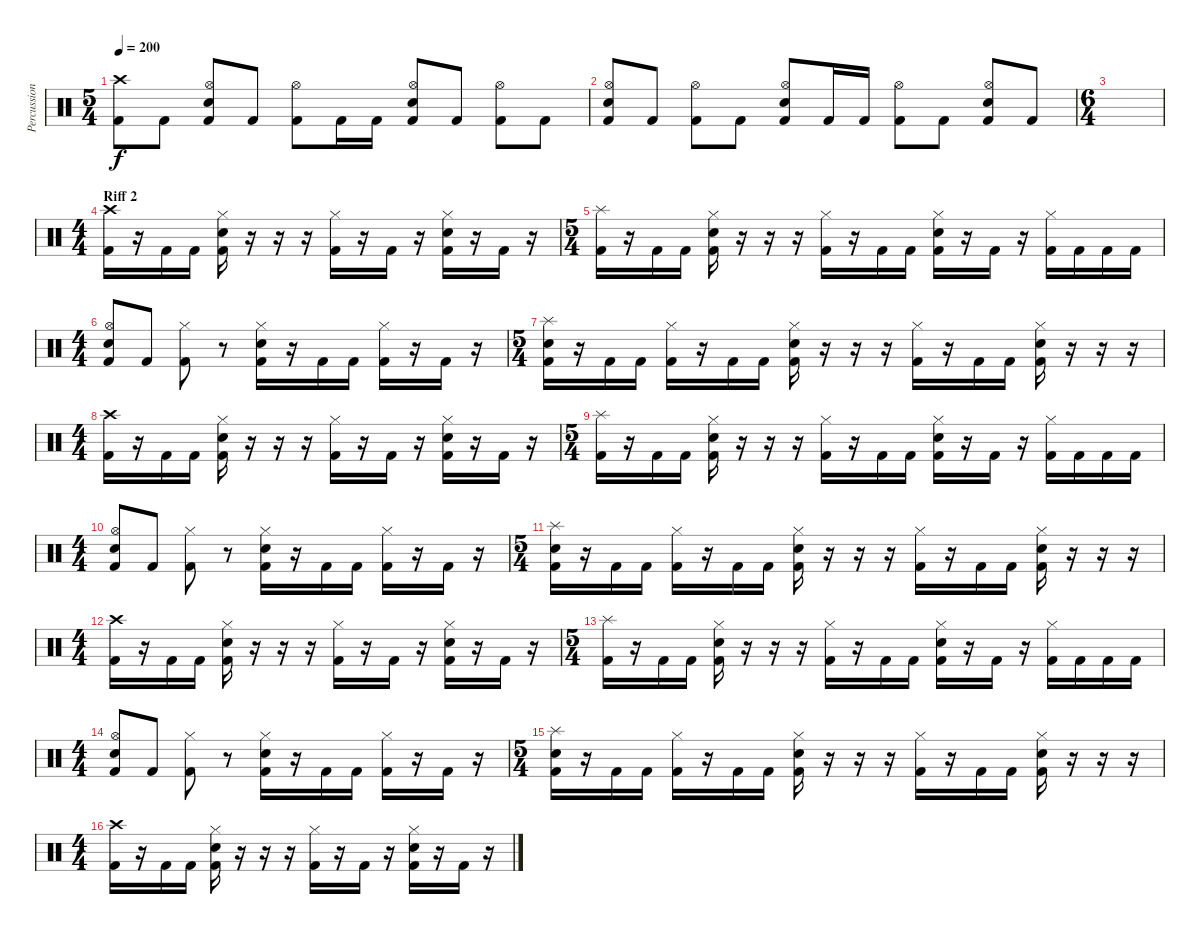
\track ("Percussion" "Percussion") {instrument percussion}
\staff {score}
\articulation defaults
\ts (5 4)
\tempo 200
\clef neutral
\ks c
("Crash high (hit)" "Kick (hit) 2").8{dy f} "Kick (hit) 2".8 ("Hi-Hat (open)" "Electric Snare (hit)" "Kick (hit) 2").8 "Kick (hit) 2".8 ("Hi-Hat (open)" "Kick (hit) 2").8 "Kick (hit) 2".16 "Kick (hit) 2".16 ("Hi-Hat (open)" "Electric Snare (hit)" "Kick (hit) 2").8 "Kick (hit) 2".8 ("Hi-Hat (open)" "Kick (hit) 2").8 "Kick (hit) 2".8 |
("Hi-Hat (open)" "Electric Snare (hit)" "Kick (hit) 2").8 "Kick (hit) 2".8 ("Hi-Hat (open)" "Kick (hit) 2").8 "Kick (hit) 2".8 ("Hi-Hat (open)" "Electric Snare (hit)" "Kick (hit) 2").8 "Kick (hit) 2".16 "Kick (hit) 2".16 ("Hi-Hat (open)" "Kick (hit) 2").8 "Kick (hit) 2".8 ("Hi-Hat (open)" "Electric Snare (hit)" "Kick (hit) 2").8 "Kick (hit) 2".8 |
\ts (6 4)
|
\ts (4 4)
\section ("" "Riff 2")
("Crash high (hit)" "Kick (hit) 2").16 r.16 "Kick (hit) 2".16 "Kick (hit) 2".16 ("Hi-Hat (closed)" "Electric Snare (hit)" "Kick (hit) 2").16 r.16 r.16 r.16 ("Hi-Hat (closed)" "Kick (hit) 2").16 r.16 "Kick (hit) 2".16 r.16 ("Hi-Hat (closed)" "Electric Snare (hit)" "Kick (hit) 2").16 r.16 "Kick (hit) 2".16 r.16 |
\ts (5 4)
("Splash (hit)" "Kick (hit) 2").16 r.16 "Kick (hit) 2".16 "Kick (hit) 2".16 ("Hi-Hat (closed)" "Electric Snare (hit)" "Kick (hit) 2").16 r.16 r.16 r.16 ("Hi-Hat (closed)" "Kick (hit) 2").16 r.16 "Kick (hit) 2".16 "Kick (hit) 2".16 ("Hi-Hat (closed)" "Electric Snare (hit)" "Kick (hit) 2").16 r.16 "Kick (hit) 2".16 r.16 ("Hi-Hat (closed)" "Kick (hit) 2").16 "Kick (hit) 2".16 "Kick (hit) 2".16 "Kick (hit) 2".16 |
\ts (4 4)
("Hi-Hat (open)" "Electric Snare (hit)" "Kick (hit) 2").8 "Kick (hit) 2".8 ("Hi-Hat (closed)" "Kick (hit) 2").8 r.8 ("Hi-Hat (closed)" "Electric Snare (hit)" "Kick (hit) 2").16 r.16 "Kick (hit) 2".16 "Kick (hit) 2".16 ("Hi-Hat (closed)" "Kick (hit) 2").16 r.16 "Kick (hit) 2".16 r.16 |
\ts (5 4)
("Splash (hit)" "Electric Snare (hit)" "Kick (hit) 2").16 r.16 "Kick (hit) 2".16 "Kick (hit) 2".16 ("Hi-Hat (closed)" "Kick (hit) 2").16 r.16 "Kick (hit) 2".16 "Kick (hit) 2".16 ("Hi-Hat (closed)" "Electric Snare (hit)" "Kick (hit) 2").16 r.16 r.16 r.16 ("Hi-Hat (closed)" "Kick (hit) 2").16 r.16 "Kick (hit) 2".16 "Kick (hit) 2".16 ("Hi-Hat (closed)" "Electric Snare (hit)" "Kick (hit) 2").16 r.16 r.16 r.16 |
\ts (4 4)
("Crash high (hit)" "Kick (hit) 2").16 r.16 "Kick (hit) 2".16 "Kick (hit) 2".16 ("Hi-Hat (closed)" "Electric Snare (hit)" "Kick (hit) 2").16 r.16 r.16 r.16 ("Hi-Hat (closed)" "Kick (hit) 2").16 r.16 "Kick (hit) 2".16 r.16 ("Hi-Hat (closed)" "Electric Snare (hit)" "Kick (hit) 2").16 r.16 "Kick (hit) 2".16 r.16 |
\ts (5 4)
("Splash (hit)" "Kick (hit) 2").16 r.16 "Kick (hit) 2".16 "Kick (hit) 2".16 ("Hi-Hat (closed)" "Electric Snare (hit)" "Kick (hit) 2").16 r.16 r.16 r.16 ("Hi-Hat (closed)" "Kick (hit) 2").16 r.16 "Kick (hit) 2".16 "Kick (hit) 2".16 ("Hi-Hat (closed)" "Electric Snare (hit)" "Kick (hit) 2").16 r.16 "Kick (hit) 2".16 r.16 ("Hi-Hat (closed)" "Kick (hit) 2").16 "Kick (hit) 2".16 "Kick (hit) 2".16 "Kick (hit) 2".16 |
\ts (4 4)
("Hi-Hat (open)" "Electric Snare (hit)" "Kick (hit) 2").8 "Kick (hit) 2".8 ("Hi-Hat (closed)" "Kick (hit) 2").8 r.8 ("Hi-Hat (closed)" "Electric Snare (hit)" "Kick (hit) 2").16 r.16 "Kick (hit) 2".16 "Kick (hit) 2".16 ("Hi-Hat (closed)" "Kick (hit) 2").16 r.16 "Kick (hit) 2".16 r.16 |
\ts (5 4)
("Splash (hit)" "Electric Snare (hit)" "Kick (hit) 2").16 r.16 "Kick (hit) 2".16 "Kick (hit) 2".16 ("Hi-Hat (closed)" "Kick (hit) 2").16 r.16 "Kick (hit) 2".16 "Kick (hit) 2".16 ("Hi-Hat (closed)" "Electric Snare (hit)" "Kick (hit) 2").16 r.16 r.16 r.16 ("Hi-Hat (closed)" "Kick (hit) 2").16 r.16 "Kick (hit) 2".16 "Kick (hit) 2".16 ("Hi-Hat (closed)" "Electric Snare (hit)" "Kick (hit) 2").16 r.16 r.16 r.16 |
\ts (4 4)
("Crash high (hit)" "Kick (hit) 2").16 r.16 "Kick (hit) 2".16 "Kick (hit) 2".16 ("Hi-Hat (closed)" "Electric Snare (hit)" "Kick (hit) 2").16 r.16 r.16 r.16 ("Hi-Hat (closed)" "Kick (hit) 2").16 r.16 "Kick (hit) 2".16 r.16 ("Hi-Hat (closed)" "Electric Snare (hit)" "Kick (hit) 2").16 r.16 "Kick (hit) 2".16 r.16 |
\ts (5 4)
("Splash (hit)" "Kick (hit) 2").16 r.16 "Kick (hit) 2".16 "Kick (hit) 2".16 ("Hi-Hat (closed)" "Electric Snare (hit)" "Kick (hit) 2").16 r.16 r.16 r.16 ("Hi-Hat (closed)" "Kick (hit) 2").16 r.16 "Kick (hit) 2".16 "Kick (hit) 2".16 ("Hi-Hat (closed)" "Electric Snare (hit)" "Kick (hit) 2").16 r.16 "Kick (hit) 2".16 r.16 ("Hi-Hat (closed)" "Kick (hit) 2").16 "Kick (hit) 2".16 "Kick (hit) 2".16 "Kick (hit) 2".16 |
\ts (4 4)
("Hi-Hat (open)" "Electric Snare (hit)" "Kick (hit) 2").8 "Kick (hit) 2".8 ("Hi-Hat (closed)" "Kick (hit) 2").8 r.8 ("Hi-Hat (closed)" "Electric Snare (hit)" "Kick (hit) 2").16 r.16 "Kick (hit) 2".16 "Kick (hit) 2".16 ("Hi-Hat (closed)" "Kick (hit) 2").16 r.16 "Kick (hit) 2".16 r.16 |
\ts (5 4)
("Splash (hit)" "Electric Snare (hit)" "Kick (hit) 2").16 r.16 "Kick (hit) 2".16 "Kick (hit) 2".16 ("Hi-Hat (closed)" "Kick (hit) 2").16 r.16 "Kick (hit) 2".16 "Kick (hit) 2".16 ("Hi-Hat (closed)" "Electric Snare (hit)" "Kick (hit) 2").16 r.16 r.16 r.16 ("Hi-Hat (closed)" "Kick (hit) 2").16 r.16 "Kick (hit) 2".16 "Kick (hit) 2".16 ("Hi-Hat (closed)" "Electric Snare (hit)" "Kick (hit) 2").16 r.16 r.16 r.16 |
\ts (4 4)
("Crash high (hit)" "Kick (hit) 2").16 r.16 "Kick (hit) 2".16 "Kick (hit) 2".16 ("Hi-Hat (closed)" "Electric Snare (hit)" "Kick (hit) 2").16 r.16 r.16 r.16 ("Hi-Hat (closed)" "Kick (hit) 2").16 r.16 "Kick (hit) 2".16 r.16 ("Hi-Hat (closed)" "Electric Snare (hit)" "Kick (hit) 2").16 r.16 "Kick (hit) 2".16 r.16
